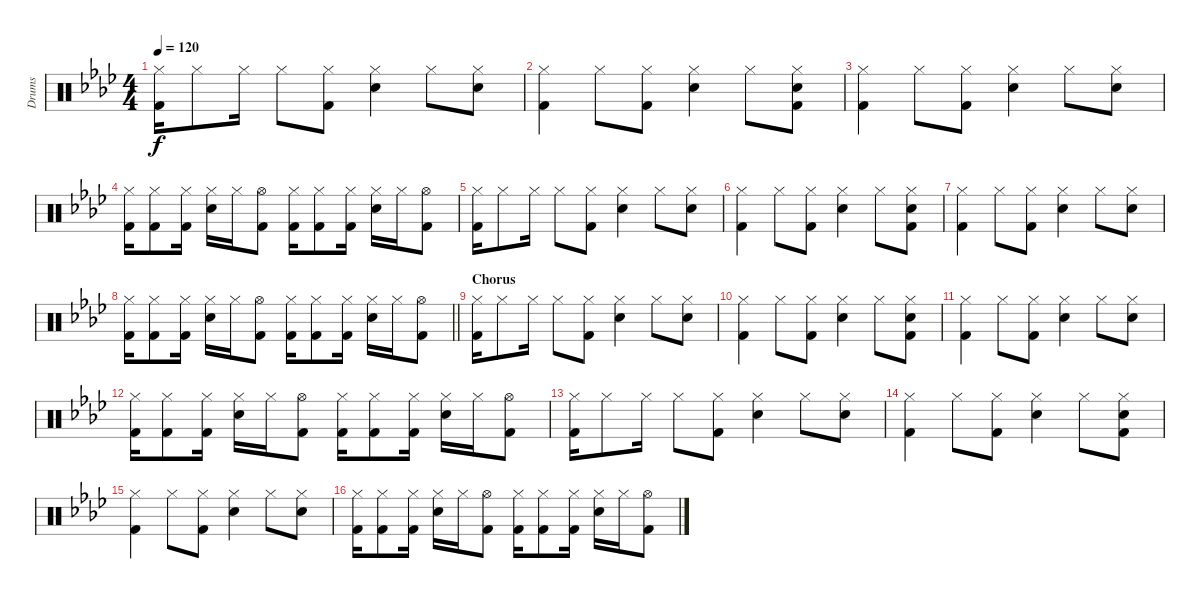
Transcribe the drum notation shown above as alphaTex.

\track ("Drums" "Drums") {instrument percussion}
\staff {score}
\articulation defaults
\ts (4 4)
\tempo 120
\clef neutral
\ks fminor
("Hi-Hat (closed)" "Kick (hit) 2").16{dy f} "Hi-Hat (closed)".8 "Hi-Hat (closed)".16 "Hi-Hat (closed)".8 ("Hi-Hat (closed)" "Kick (hit) 2").8 ("Hi-Hat (closed)" "Snare (hit) 2").4 "Hi-Hat (closed)".8 ("Hi-Hat (closed)" "Snare (hit) 2").8 |
("Hi-Hat (closed)" "Kick (hit) 2").4 "Hi-Hat (closed)".8 ("Hi-Hat (closed)" "Kick (hit) 2").8 ("Hi-Hat (closed)" "Snare (hit) 2").4 "Hi-Hat (closed)".8 ("Hi-Hat (closed)" "Snare (hit) 2" "Kick (hit) 2").8 |
("Hi-Hat (closed)" "Kick (hit) 2").4 "Hi-Hat (closed)".8 ("Hi-Hat (closed)" "Kick (hit) 2").8 ("Hi-Hat (closed)" "Snare (hit) 2").4 "Hi-Hat (closed)".8 ("Hi-Hat (closed)" "Snare (hit) 2").8 |
("Hi-Hat (closed)" "Kick (hit) 2").16 ("Hi-Hat (closed)" "Kick (hit) 2").8 ("Hi-Hat (closed)" "Kick (hit) 2").16 ("Hi-Hat (closed)" "Snare (hit) 2").16 "Hi-Hat (closed)".16 ("Hi-Hat (open)" "Kick (hit) 2").8 ("Hi-Hat (closed)" "Kick (hit) 2").16 ("Hi-Hat (closed)" "Kick (hit) 2").8 ("Hi-Hat (closed)" "Kick (hit) 2").16 ("Hi-Hat (closed)" "Snare (hit) 2").16 "Hi-Hat (closed)".16 ("Hi-Hat (open)" "Kick (hit) 2").8 |
("Hi-Hat (closed)" "Kick (hit) 2").16 "Hi-Hat (closed)".8 "Hi-Hat (closed)".16 "Hi-Hat (closed)".8 ("Hi-Hat (closed)" "Kick (hit) 2").8 ("Hi-Hat (closed)" "Snare (hit) 2").4 "Hi-Hat (closed)".8 ("Hi-Hat (closed)" "Snare (hit) 2").8 |
("Hi-Hat (closed)" "Kick (hit) 2").4 "Hi-Hat (closed)".8 ("Hi-Hat (closed)" "Kick (hit) 2").8 ("Hi-Hat (closed)" "Snare (hit) 2").4 "Hi-Hat (closed)".8 ("Hi-Hat (closed)" "Snare (hit) 2" "Kick (hit) 2").8 |
("Hi-Hat (closed)" "Kick (hit) 2").4 "Hi-Hat (closed)".8 ("Hi-Hat (closed)" "Kick (hit) 2").8 ("Hi-Hat (closed)" "Snare (hit) 2").4 "Hi-Hat (closed)".8 ("Hi-Hat (closed)" "Snare (hit) 2").8 |
\barLineRight lightlight
("Hi-Hat (closed)" "Kick (hit) 2").16 ("Hi-Hat (closed)" "Kick (hit) 2").8 ("Hi-Hat (closed)" "Kick (hit) 2").16 ("Hi-Hat (closed)" "Snare (hit) 2").16 "Hi-Hat (closed)".16 ("Hi-Hat (open)" "Kick (hit) 2").8 ("Hi-Hat (closed)" "Kick (hit) 2").16 ("Hi-Hat (closed)" "Kick (hit) 2").8 ("Hi-Hat (closed)" "Kick (hit) 2").16 ("Hi-Hat (closed)" "Snare (hit) 2").16 "Hi-Hat (closed)".16 ("Hi-Hat (open)" "Kick (hit) 2").8 |
\section ("" "Chorus")
("Hi-Hat (closed)" "Kick (hit) 2").16 "Hi-Hat (closed)".8 "Hi-Hat (closed)".16 "Hi-Hat (closed)".8 ("Hi-Hat (closed)" "Kick (hit) 2").8 ("Hi-Hat (closed)" "Snare (hit) 2").4 "Hi-Hat (closed)".8 ("Hi-Hat (closed)" "Snare (hit) 2").8 |
("Hi-Hat (closed)" "Kick (hit) 2").4 "Hi-Hat (closed)".8 ("Hi-Hat (closed)" "Kick (hit) 2").8 ("Hi-Hat (closed)" "Snare (hit) 2").4 "Hi-Hat (closed)".8 ("Hi-Hat (closed)" "Snare (hit) 2" "Kick (hit) 2").8 |
("Hi-Hat (closed)" "Kick (hit) 2").4 "Hi-Hat (closed)".8 ("Hi-Hat (closed)" "Kick (hit) 2").8 ("Hi-Hat (closed)" "Snare (hit) 2").4 "Hi-Hat (closed)".8 ("Hi-Hat (closed)" "Snare (hit) 2").8 |
("Hi-Hat (closed)" "Kick (hit) 2").16 ("Hi-Hat (closed)" "Kick (hit) 2").8 ("Hi-Hat (closed)" "Kick (hit) 2").16 ("Hi-Hat (closed)" "Snare (hit) 2").16 "Hi-Hat (closed)".16 ("Hi-Hat (open)" "Kick (hit) 2").8 ("Hi-Hat (closed)" "Kick (hit) 2").16 ("Hi-Hat (closed)" "Kick (hit) 2").8 ("Hi-Hat (closed)" "Kick (hit) 2").16 ("Hi-Hat (closed)" "Snare (hit) 2").16 "Hi-Hat (closed)".16 ("Hi-Hat (open)" "Kick (hit) 2").8 |
("Hi-Hat (closed)" "Kick (hit) 2").16 "Hi-Hat (closed)".8 "Hi-Hat (closed)".16 "Hi-Hat (closed)".8 ("Hi-Hat (closed)" "Kick (hit) 2").8 ("Hi-Hat (closed)" "Snare (hit) 2").4 "Hi-Hat (closed)".8 ("Hi-Hat (closed)" "Snare (hit) 2").8 |
("Hi-Hat (closed)" "Kick (hit) 2").4 "Hi-Hat (closed)".8 ("Hi-Hat (closed)" "Kick (hit) 2").8 ("Hi-Hat (closed)" "Snare (hit) 2").4 "Hi-Hat (closed)".8 ("Hi-Hat (closed)" "Snare (hit) 2" "Kick (hit) 2").8 |
("Hi-Hat (closed)" "Kick (hit) 2").4 "Hi-Hat (closed)".8 ("Hi-Hat (closed)" "Kick (hit) 2").8 ("Hi-Hat (closed)" "Snare (hit) 2").4 "Hi-Hat (closed)".8 ("Hi-Hat (closed)" "Snare (hit) 2").8 |
("Hi-Hat (closed)" "Kick (hit) 2").16 ("Hi-Hat (closed)" "Kick (hit) 2").8 ("Hi-Hat (closed)" "Kick (hit) 2").16 ("Hi-Hat (closed)" "Snare (hit) 2").16 "Hi-Hat (closed)".16 ("Hi-Hat (open)" "Kick (hit) 2").8 ("Hi-Hat (closed)" "Kick (hit) 2").16 ("Hi-Hat (closed)" "Kick (hit) 2").8 ("Hi-Hat (closed)" "Kick (hit) 2").16 ("Hi-Hat (closed)" "Snare (hit) 2").16 "Hi-Hat (closed)".16 ("Hi-Hat (open)" "Kick (hit) 2").8
